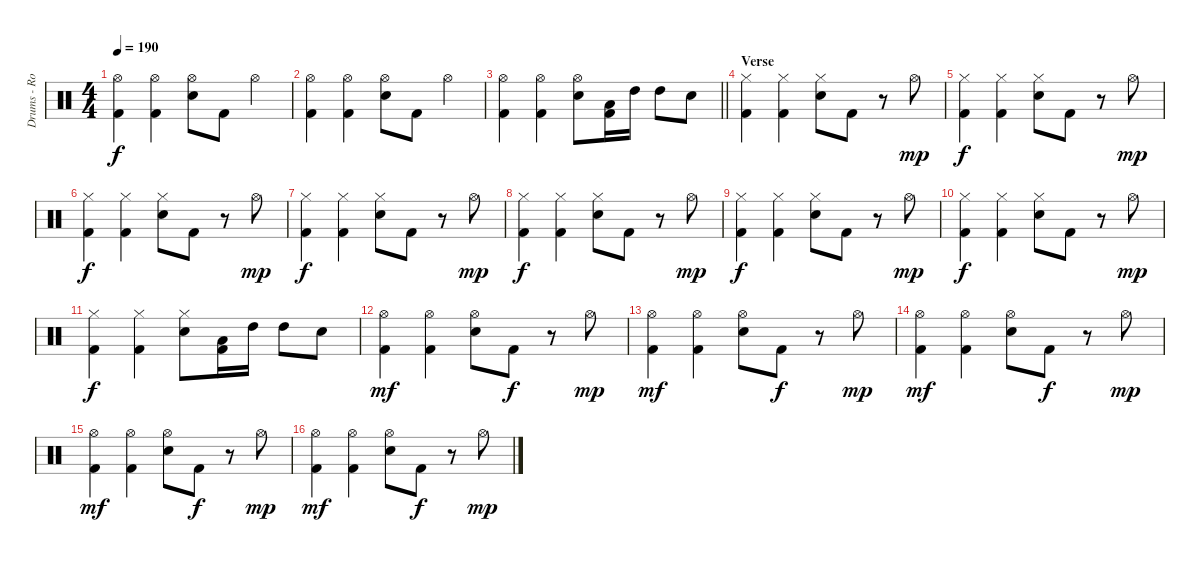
\track ("Drums - Rob Bourdon" "Drums - Ro") {instrument percussion}
\staff {score}
\articulation defaults
\ts (4 4)
\tempo 190
\clef neutral
\ks c
("Hi-Hat (open)" "Kick (hit) 2").4{dy f} ("Hi-Hat (open)" "Kick (hit) 2").4 ("Hi-Hat (open)" "Snare (hit) 2").8 "Kick (hit) 2".8 "Hi-Hat (open)".4 |
("Hi-Hat (open)" "Kick (hit) 2").4 ("Hi-Hat (open)" "Kick (hit) 2").4 ("Hi-Hat (open)" "Snare (hit) 2").8 "Kick (hit) 2".8 "Hi-Hat (open)".4 |
\barLineRight lightlight
("Hi-Hat (open)" "Kick (hit) 2").4 ("Hi-Hat (open)" "Kick (hit) 2").4 ("Hi-Hat (open)" "Snare (hit) 2").8 ("Low Tom (hit)" "Kick (hit) 2").16 "High Tom (hit)".16 "High Tom (hit)".8 "Snare (hit) 2".8 |
\section ("" "Verse")
("Hi-Hat (closed)" "Kick (hit) 2").4 ("Hi-Hat (closed)" "Kick (hit) 2").4 ("Hi-Hat (closed)" "Snare (hit) 2").8 "Kick (hit) 2".8 r.8 "Hi-Hat (open)".8{dy mp} |
("Hi-Hat (closed)" "Kick (hit) 2").4{dy f} ("Hi-Hat (closed)" "Kick (hit) 2").4 ("Hi-Hat (closed)" "Snare (hit) 2").8 "Kick (hit) 2".8 r.8 "Hi-Hat (open)".8{dy mp} |
("Hi-Hat (closed)" "Kick (hit) 2").4{dy f} ("Hi-Hat (closed)" "Kick (hit) 2").4 ("Hi-Hat (closed)" "Snare (hit) 2").8 "Kick (hit) 2".8 r.8 "Hi-Hat (open)".8{dy mp} |
("Hi-Hat (closed)" "Kick (hit) 2").4{dy f} ("Hi-Hat (closed)" "Kick (hit) 2").4 ("Hi-Hat (closed)" "Snare (hit) 2").8 "Kick (hit) 2".8 r.8 "Hi-Hat (open)".8{dy mp} |
("Hi-Hat (closed)" "Kick (hit) 2").4{dy f} ("Hi-Hat (closed)" "Kick (hit) 2").4 ("Hi-Hat (closed)" "Snare (hit) 2").8 "Kick (hit) 2".8 r.8 "Hi-Hat (open)".8{dy mp} |
("Hi-Hat (closed)" "Kick (hit) 2").4{dy f} ("Hi-Hat (closed)" "Kick (hit) 2").4 ("Hi-Hat (closed)" "Snare (hit) 2").8 "Kick (hit) 2".8 r.8 "Hi-Hat (open)".8{dy mp} |
("Hi-Hat (closed)" "Kick (hit) 2").4{dy f} ("Hi-Hat (closed)" "Kick (hit) 2").4 ("Hi-Hat (closed)" "Snare (hit) 2").8 "Kick (hit) 2".8 r.8 "Hi-Hat (open)".8{dy mp} |
("Hi-Hat (closed)" "Kick (hit) 2").4{dy f} ("Hi-Hat (closed)" "Kick (hit) 2").4 ("Hi-Hat (closed)" "Snare (hit) 2").8 ("Low Tom (hit)" "Kick (hit) 2").16 "High Tom (hit)".16 "High Tom (hit)".8 "Snare (hit) 2".8 |
("Hi-Hat (open)" "Kick (hit) 2").4{dy mf} ("Hi-Hat (open)" "Kick (hit) 2").4 ("Hi-Hat (open)" "Snare (hit) 2").8 "Kick (hit) 2".8{dy f} r.8 "Hi-Hat (open)".8{dy mp} |
("Hi-Hat (open)" "Kick (hit) 2").4{dy mf} ("Hi-Hat (open)" "Kick (hit) 2").4 ("Hi-Hat (open)" "Snare (hit) 2").8 "Kick (hit) 2".8{dy f} r.8 "Hi-Hat (open)".8{dy mp} |
("Hi-Hat (open)" "Kick (hit) 2").4{dy mf} ("Hi-Hat (open)" "Kick (hit) 2").4 ("Hi-Hat (open)" "Snare (hit) 2").8 "Kick (hit) 2".8{dy f} r.8 "Hi-Hat (open)".8{dy mp} |
("Hi-Hat (open)" "Kick (hit) 2").4{dy mf} ("Hi-Hat (open)" "Kick (hit) 2").4 ("Hi-Hat (open)" "Snare (hit) 2").8 "Kick (hit) 2".8{dy f} r.8 "Hi-Hat (open)".8{dy mp} |
("Hi-Hat (open)" "Kick (hit) 2").4{dy mf} ("Hi-Hat (open)" "Kick (hit) 2").4 ("Hi-Hat (open)" "Snare (hit) 2").8 "Kick (hit) 2".8{dy f} r.8 "Hi-Hat (open)".8{dy mp}
